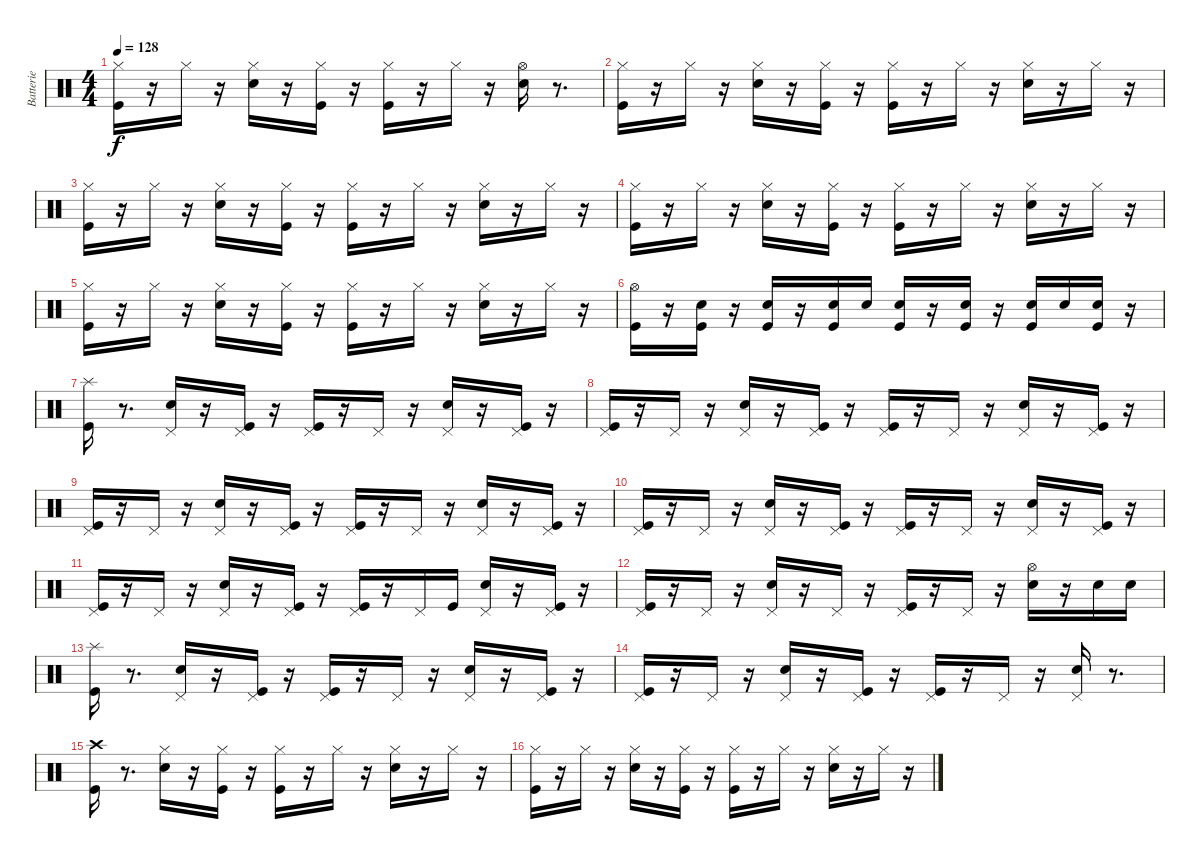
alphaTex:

\track ("Batterie" "Batterie") {instrument percussion}
\staff {score}
\articulation defaults
\ts (4 4)
\tempo 128
\clef neutral
\ks c
("Kick (hit)" "Hi-Hat (closed)").16{dy f} r.16 "Hi-Hat (closed)".16 r.16 ("Snare (hit) 2" "Hi-Hat (closed)").16 r.16 ("Kick (hit)" "Hi-Hat (closed)").16 r.16 ("Kick (hit)" "Hi-Hat (closed)").16 r.16 "Hi-Hat (closed)".16 r.16 ("Hi-Hat (open)" "Snare (hit) 2").16 r.8{d} |
("Hi-Hat (closed)" "Kick (hit)").16 r.16 "Hi-Hat (closed)".16 r.16 ("Snare (hit) 2" "Hi-Hat (closed)").16 r.16 ("Kick (hit)" "Hi-Hat (closed)").16 r.16 ("Kick (hit)" "Hi-Hat (closed)").16 r.16 "Hi-Hat (closed)".16 r.16 ("Snare (hit) 2" "Hi-Hat (closed)").16 r.16 "Hi-Hat (closed)".16 r.16 |
("Kick (hit)" "Hi-Hat (closed)").16 r.16 "Hi-Hat (closed)".16 r.16 ("Snare (hit) 2" "Hi-Hat (closed)").16 r.16 ("Kick (hit)" "Hi-Hat (closed)").16 r.16 ("Kick (hit)" "Hi-Hat (closed)").16 r.16 "Hi-Hat (closed)".16 r.16 ("Snare (hit) 2" "Hi-Hat (closed)").16 r.16 "Hi-Hat (closed)".16 r.16 |
("Kick (hit)" "Hi-Hat (closed)").16 r.16 "Hi-Hat (closed)".16 r.16 ("Snare (hit) 2" "Hi-Hat (closed)").16 r.16 ("Kick (hit)" "Hi-Hat (closed)").16 r.16 ("Kick (hit)" "Hi-Hat (closed)").16 r.16 "Hi-Hat (closed)".16 r.16 ("Snare (hit) 2" "Hi-Hat (closed)").16 r.16 "Hi-Hat (closed)".16 r.16 |
("Kick (hit)" "Hi-Hat (closed)").16 r.16 "Hi-Hat (closed)".16 r.16 ("Snare (hit) 2" "Hi-Hat (closed)").16 r.16 ("Kick (hit)" "Hi-Hat (closed)").16 r.16 ("Kick (hit)" "Hi-Hat (closed)").16 r.16 "Hi-Hat (closed)".16 r.16 ("Snare (hit) 2" "Hi-Hat (closed)").16 r.16 "Hi-Hat (closed)".16 r.16 |
("Kick (hit)" "Hi-Hat (open)").16 r.16 ("Kick (hit)" "Snare (hit) 2").16 r.16 ("Snare (hit) 2" "Kick (hit)").16 r.16 ("Kick (hit)" "Snare (hit) 2").16 "Snare (hit) 2".16 ("Snare (hit) 2" "Kick (hit)").16 r.16 ("Kick (hit)" "Snare (hit) 2").16 r.16 ("Kick (hit)" "Snare (hit) 2").16 "Snare (hit) 2".16 ("Snare (hit) 2" "Kick (hit)").16 r.16 |
("Kick (hit)" "Splash (hit)").16 r.8{d} ("Pedal Hi-Hat (hit)" "Snare (hit) 2").16 r.16 ("Kick (hit)" "Pedal Hi-Hat (hit)").16 r.16 ("Pedal Hi-Hat (hit)" "Kick (hit)").16 r.16 "Pedal Hi-Hat (hit)".16 r.16 ("Pedal Hi-Hat (hit)" "Snare (hit) 2").16 r.16 ("Kick (hit)" "Pedal Hi-Hat (hit)").16 r.16 |
("Pedal Hi-Hat (hit)" "Kick (hit)").16 r.16 "Pedal Hi-Hat (hit)".16 r.16 ("Pedal Hi-Hat (hit)" "Snare (hit) 2").16 r.16 ("Pedal Hi-Hat (hit)" "Kick (hit)").16 r.16 ("Pedal Hi-Hat (hit)" "Kick (hit)").16 r.16 "Pedal Hi-Hat (hit)".16 r.16 ("Pedal Hi-Hat (hit)" "Snare (hit) 2").16 r.16 ("Pedal Hi-Hat (hit)" "Kick (hit)").16 r.16 |
("Pedal Hi-Hat (hit)" "Kick (hit)").16 r.16 "Pedal Hi-Hat (hit)".16 r.16 ("Pedal Hi-Hat (hit)" "Snare (hit) 2").16 r.16 ("Kick (hit)" "Pedal Hi-Hat (hit)").16 r.16 ("Pedal Hi-Hat (hit)" "Kick (hit)").16 r.16 "Pedal Hi-Hat (hit)".16 r.16 ("Pedal Hi-Hat (hit)" "Snare (hit) 2").16 r.16 ("Kick (hit)" "Pedal Hi-Hat (hit)").16 r.16 |
("Pedal Hi-Hat (hit)" "Kick (hit)").16 r.16 "Pedal Hi-Hat (hit)".16 r.16 ("Pedal Hi-Hat (hit)" "Snare (hit) 2").16 r.16 ("Pedal Hi-Hat (hit)" "Kick (hit)").16 r.16 ("Pedal Hi-Hat (hit)" "Kick (hit)").16 r.16 "Pedal Hi-Hat (hit)".16 r.16 ("Pedal Hi-Hat (hit)" "Snare (hit) 2").16 r.16 ("Pedal Hi-Hat (hit)" "Kick (hit)").16 r.16 |
("Pedal Hi-Hat (hit)" "Kick (hit)").16 r.16 "Pedal Hi-Hat (hit)".16 r.16 ("Pedal Hi-Hat (hit)" "Snare (hit) 2").16 r.16 ("Kick (hit)" "Pedal Hi-Hat (hit)").16 r.16 ("Pedal Hi-Hat (hit)" "Kick (hit)").16 r.16 "Pedal Hi-Hat (hit)".16 "Kick (hit)".16 ("Pedal Hi-Hat (hit)" "Snare (hit) 2").16 r.16 ("Kick (hit)" "Pedal Hi-Hat (hit)").16 r.16 |
("Pedal Hi-Hat (hit)" "Kick (hit)").16 r.16 "Pedal Hi-Hat (hit)".16 r.16 ("Pedal Hi-Hat (hit)" "Snare (hit) 2").16 r.16 "Pedal Hi-Hat (hit)".16 r.16 ("Pedal Hi-Hat (hit)" "Kick (hit)").16 r.16 "Pedal Hi-Hat (hit)".16 r.16 ("Hi-Hat (open)" "Snare (hit) 2").16 r.16 "Snare (hit) 2".16 "Snare (hit) 2".16 |
("Splash (hit)" "Kick (hit)").16 r.8{d} ("Pedal Hi-Hat (hit)" "Snare (hit) 2").16 r.16 ("Kick (hit)" "Pedal Hi-Hat (hit)").16 r.16 ("Pedal Hi-Hat (hit)" "Kick (hit)").16 r.16 "Pedal Hi-Hat (hit)".16 r.16 ("Pedal Hi-Hat (hit)" "Snare (hit) 2").16 r.16 ("Kick (hit)" "Pedal Hi-Hat (hit)").16 r.16 |
("Pedal Hi-Hat (hit)" "Kick (hit)").16 r.16 "Pedal Hi-Hat (hit)".16 r.16 ("Pedal Hi-Hat (hit)" "Snare (hit) 2").16 r.16 ("Pedal Hi-Hat (hit)" "Kick (hit)").16 r.16 ("Pedal Hi-Hat (hit)" "Kick (hit)").16 r.16 "Pedal Hi-Hat (hit)".16 r.16 ("Pedal Hi-Hat (hit)" "Snare (hit) 2").16 r.8{d} |
("Kick (hit)" "Crash high (hit)").16 r.8{d} ("Snare (hit) 2" "Hi-Hat (closed)").16 r.16 ("Kick (hit)" "Hi-Hat (closed)").16 r.16 ("Kick (hit)" "Hi-Hat (closed)").16 r.16 "Hi-Hat (closed)".16 r.16 ("Snare (hit) 2" "Hi-Hat (closed)").16 r.16 "Hi-Hat (closed)".16 r.16 |
("Kick (hit)" "Hi-Hat (closed)").16 r.16 "Hi-Hat (closed)".16 r.16 ("Snare (hit) 2" "Hi-Hat (closed)").16 r.16 ("Kick (hit)" "Hi-Hat (closed)").16 r.16 ("Kick (hit)" "Hi-Hat (closed)").16 r.16 "Hi-Hat (closed)".16 r.16 ("Snare (hit) 2" "Hi-Hat (closed)").16 r.16 "Hi-Hat (closed)".16 r.16
